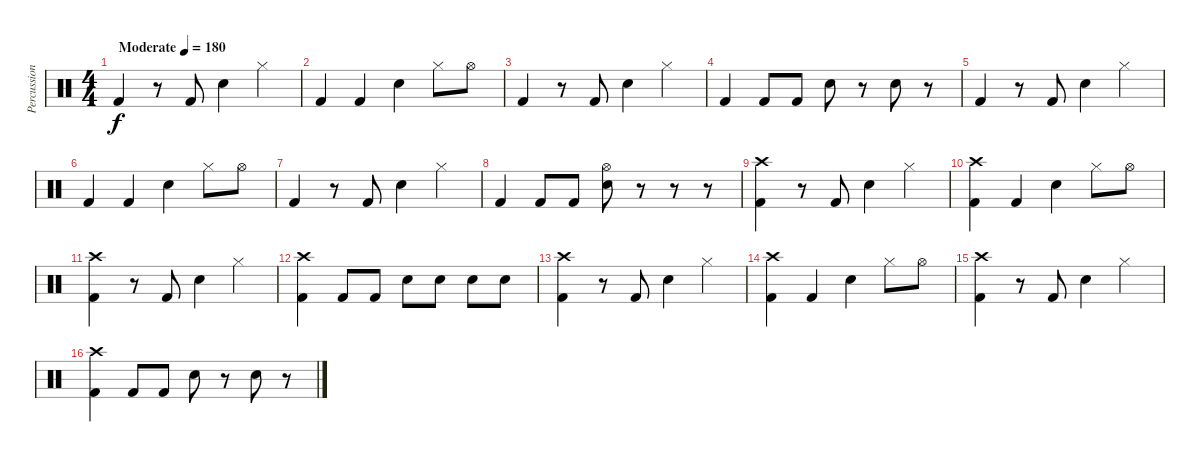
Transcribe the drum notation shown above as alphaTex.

\track ("Percussion" "Percussion") {instrument percussion}
\staff {score}
\articulation defaults
\ts (4 4)
\tempo (180 "Moderate")
\clef neutral
\ks c "Kick (hit) 2".4{dy f}
r.8 "Kick (hit) 2".8 "Electric Snare (hit)".4 "Hi-Hat (closed)".4 |
"Kick (hit) 2".4 "Kick (hit) 2".4 "Electric Snare (hit)".4 "Hi-Hat (closed)".8 "Hi-Hat (open)".8 |
"Kick (hit) 2".4 r.8 "Kick (hit) 2".8 "Electric Snare (hit)".4 "Hi-Hat (closed)".4 |
"Kick (hit) 2".4 "Kick (hit) 2".8 "Kick (hit) 2".8 "Electric Snare (hit)".8 r.8 "Electric Snare (hit)".8 r.8 |
"Kick (hit) 2".4 r.8 "Kick (hit) 2".8 "Electric Snare (hit)".4 "Hi-Hat (closed)".4 |
"Kick (hit) 2".4 "Kick (hit) 2".4 "Electric Snare (hit)".4 "Hi-Hat (closed)".8 "Hi-Hat (open)".8 |
"Kick (hit) 2".4 r.8 "Kick (hit) 2".8 "Electric Snare (hit)".4 "Hi-Hat (closed)".4 |
"Kick (hit) 2".4 "Kick (hit) 2".8 "Kick (hit) 2".8 ("Hi-Hat (open)" "Electric Snare (hit)").8 r.8 r.8 r.8 |
("Crash high (hit)" "Kick (hit) 2").4 r.8 "Kick (hit) 2".8 "Electric Snare (hit)".4 "Hi-Hat (closed)".4 |
("Crash high (hit)" "Kick (hit) 2").4 "Kick (hit) 2".4 "Electric Snare (hit)".4 "Hi-Hat (closed)".8 "Hi-Hat (open)".8 |
("Crash high (hit)" "Kick (hit) 2").4 r.8 "Kick (hit) 2".8 "Electric Snare (hit)".4 "Hi-Hat (closed)".4 |
("Crash high (hit)" "Kick (hit) 2").4 "Kick (hit) 2".8 "Kick (hit) 2".8 "Electric Snare (hit)".8 "Electric Snare (hit)".8 "Electric Snare (hit)".8 "Electric Snare (hit)".8 |
("Crash high (hit)" "Kick (hit) 2").4 r.8 "Kick (hit) 2".8 "Electric Snare (hit)".4 "Hi-Hat (closed)".4 |
("Crash high (hit)" "Kick (hit) 2").4 "Kick (hit) 2".4 "Electric Snare (hit)".4 "Hi-Hat (closed)".8 "Hi-Hat (open)".8 |
("Crash high (hit)" "Kick (hit) 2").4 r.8 "Kick (hit) 2".8 "Electric Snare (hit)".4 "Hi-Hat (closed)".4 |
("Crash high (hit)" "Kick (hit) 2").4 "Kick (hit) 2".8 "Kick (hit) 2".8 "Electric Snare (hit)".8 r.8 "Electric Snare (hit)".8 r.8
